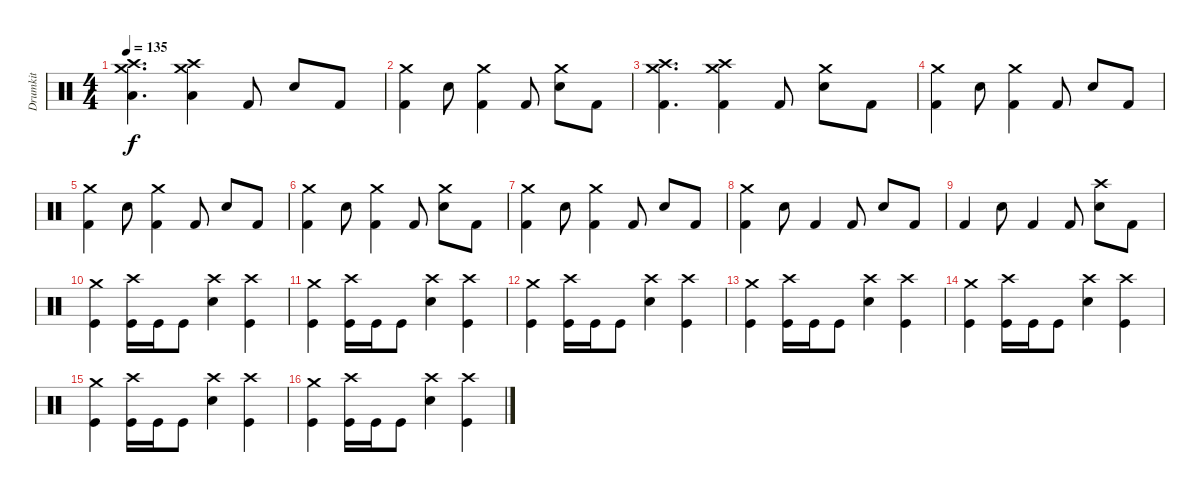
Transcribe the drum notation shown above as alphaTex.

\track ("Drumkit" "Drumkit") {instrument percussion}
\staff {score}
\articulation defaults
\ts (4 4)
\tempo 135
\clef neutral
\ks c
("Crash high (hit)" "Crash medium (hit)" "Low Floor Tom (hit)").4{d dy f} ("Crash high (hit)" "Crash medium (hit)" "Low Floor Tom (hit)").4 "Kick (hit) 2".8 "Snare (hit) 2".8 "Kick (hit) 2".8 |
("Crash medium (hit)" "Kick (hit) 2").4 "Snare (hit) 2".8 ("Crash medium (hit)" "Kick (hit) 2").4 "Kick (hit) 2".8 ("Crash medium (hit)" "Snare (hit) 2").8 "Kick (hit) 2".8 |
("Crash high (hit)" "Crash medium (hit)" "Kick (hit) 2").4{d} ("Crash high (hit)" "Crash medium (hit)" "Kick (hit) 2").4 "Kick (hit) 2".8 ("Crash medium (hit)" "Snare (hit) 2").8 "Kick (hit) 2".8 |
("Crash medium (hit)" "Kick (hit) 2").4 "Snare (hit) 2".8 ("Crash medium (hit)" "Kick (hit) 2").4 "Kick (hit) 2".8 "Snare (hit) 2".8 "Kick (hit) 2".8 |
("Crash medium (hit)" "Kick (hit) 2").4 "Snare (hit) 2".8 ("Crash medium (hit)" "Kick (hit) 2").4 "Kick (hit) 2".8 "Snare (hit) 2".8 "Kick (hit) 2".8 |
("Crash medium (hit)" "Kick (hit) 2").4 "Snare (hit) 2".8 ("Crash medium (hit)" "Kick (hit) 2").4 "Kick (hit) 2".8 ("Crash medium (hit)" "Snare (hit) 2").8 "Kick (hit) 2".8 |
("Crash medium (hit)" "Kick (hit) 2").4 "Snare (hit) 2".8 ("Crash medium (hit)" "Kick (hit) 2").4 "Kick (hit) 2".8 "Snare (hit) 2".8 "Kick (hit) 2".8 |
("Crash medium (hit)" "Kick (hit) 2").4 "Snare (hit) 2".8 "Kick (hit) 2".4 "Kick (hit) 2".8 "Snare (hit) 2".8 "Kick (hit) 2".8 |
"Kick (hit) 2".4 "Snare (hit) 2".8 "Kick (hit) 2".4 "Kick (hit) 2".8 ("Crash high (hit)" "Snare (hit) 2").8 "Kick (hit) 2".8 |
("Crash medium (hit)" "Kick (hit)").4 ("Crash high (hit)" "Kick (hit)").16 "Kick (hit)".16 "Kick (hit)".8 ("Crash high (hit)" "Snare (hit) 2").4 ("Crash high (hit)" "Kick (hit)").4 |
("Crash medium (hit)" "Kick (hit)").4 ("Crash high (hit)" "Kick (hit)").16 "Kick (hit)".16 "Kick (hit)".8 ("Crash high (hit)" "Snare (hit) 2").4 ("Crash high (hit)" "Kick (hit)").4 |
("Crash medium (hit)" "Kick (hit)").4 ("Crash high (hit)" "Kick (hit)").16 "Kick (hit)".16 "Kick (hit)".8 ("Crash high (hit)" "Snare (hit) 2").4 ("Crash high (hit)" "Kick (hit)").4 |
("Crash medium (hit)" "Kick (hit)").4 ("Crash high (hit)" "Kick (hit)").16 "Kick (hit)".16 "Kick (hit)".8 ("Crash high (hit)" "Snare (hit) 2").4 ("Crash high (hit)" "Kick (hit)").4 |
("Crash medium (hit)" "Kick (hit)").4 ("Crash high (hit)" "Kick (hit)").16 "Kick (hit)".16 "Kick (hit)".8 ("Crash high (hit)" "Snare (hit) 2").4 ("Crash high (hit)" "Kick (hit)").4 |
("Crash medium (hit)" "Kick (hit)").4 ("Crash high (hit)" "Kick (hit)").16 "Kick (hit)".16 "Kick (hit)".8 ("Crash high (hit)" "Snare (hit) 2").4 ("Crash high (hit)" "Kick (hit)").4 |
("Crash medium (hit)" "Kick (hit)").4 ("Crash high (hit)" "Kick (hit)").16 "Kick (hit)".16 "Kick (hit)".8 ("Crash high (hit)" "Snare (hit) 2").4 ("Crash high (hit)" "Kick (hit)").4
